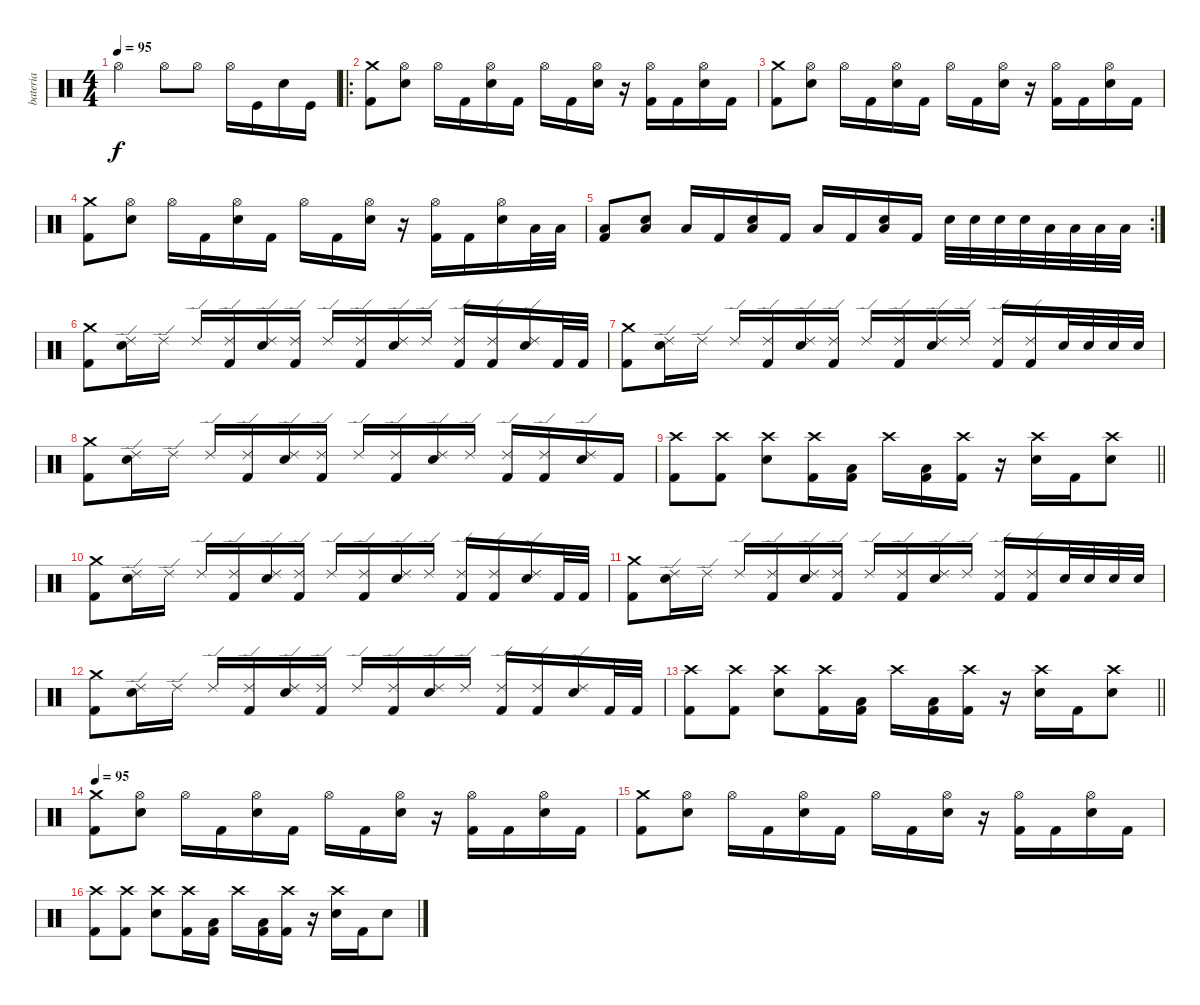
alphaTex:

\track ("bateria" "bateria") {instrument percussion}
\staff {score}
\articulation defaults
\ts (4 4)
\tempo 95
\clef neutral
\ks c "Hi-Hat (open)".2{dy f} "Hi-Hat (open)".8 "Hi-Hat (open)".8 "Hi-Hat (open)".16 "Kick (hit)".16 "Electric Snare (hit)".16 "Kick (hit)".16
|
\ro
("Crash medium (hit)" "Kick (hit) 2").8 ("Hi-Hat (open)" "Electric Snare (hit)").8 "Hi-Hat (open)".16 "Kick (hit) 2".16 ("Hi-Hat (open)" "Electric Snare (hit)").16 "Kick (hit) 2".16 "Hi-Hat (open)".16 "Kick (hit) 2".16 ("Hi-Hat (open)" "Electric Snare (hit)").16 r.16 ("Hi-Hat (open)" "Kick (hit) 2").16 "Kick (hit) 2".16 ("Hi-Hat (open)" "Electric Snare (hit)").16 "Kick (hit) 2".16 |
("Crash medium (hit)" "Kick (hit) 2").8 ("Hi-Hat (open)" "Electric Snare (hit)").8 "Hi-Hat (open)".16 "Kick (hit) 2".16 ("Hi-Hat (open)" "Electric Snare (hit)").16 "Kick (hit) 2".16 "Hi-Hat (open)".16 "Kick (hit) 2".16 ("Hi-Hat (open)" "Electric Snare (hit)").16 r.16 ("Hi-Hat (open)" "Kick (hit) 2").16 "Kick (hit) 2".16 ("Hi-Hat (open)" "Electric Snare (hit)").16 "Kick (hit) 2".16 |
("Crash medium (hit)" "Kick (hit) 2").8 ("Hi-Hat (open)" "Electric Snare (hit)").8 "Hi-Hat (open)".16 "Kick (hit) 2".16 ("Hi-Hat (open)" "Electric Snare (hit)").16 "Kick (hit) 2".16 "Hi-Hat (open)".16 "Kick (hit) 2".16 ("Hi-Hat (open)" "Electric Snare (hit)").16 r.16 ("Hi-Hat (open)" "Kick (hit) 2").16 "Kick (hit) 2".16 ("Hi-Hat (open)" "Electric Snare (hit)").16 "Low Tom (hit)".32 "Low Tom (hit)".32 |
\rc 2
("Low Tom (hit)" "Kick (hit) 2").8 ("Low Tom (hit)" "Electric Snare (hit)").8 "Low Tom (hit)".16 "Kick (hit) 2".16 ("Low Tom (hit)" "Electric Snare (hit)").16 "Kick (hit) 2".16 "Low Tom (hit)".16 "Kick (hit) 2".16 ("Low Tom (hit)" "Electric Snare (hit)").16 "Kick (hit) 2".16 "Electric Snare (hit)".32 "Electric Snare (hit)".32 "Electric Snare (hit)".32 "Electric Snare (hit)".32 "Low Tom (hit)".32 "Low Tom (hit)".32 "Low Tom (hit)".32 "Low Tom (hit)".32 |
("Crash medium (hit)" "Kick (hit) 2").8 ("Ride (edge) 2" "Electric Snare (hit)").16 "Ride (edge) 2".16 "Ride (edge) 2".16 ("Ride (edge) 2" "Kick (hit) 2").16 ("Ride (edge) 2" "Electric Snare (hit)").16 ("Ride (edge) 2" "Kick (hit) 2").16 "Ride (edge) 2".16 ("Ride (edge) 2" "Kick (hit) 2").16 ("Ride (edge) 2" "Electric Snare (hit)").16 "Ride (edge) 2".16 ("Ride (edge) 2" "Kick (hit) 2").16 ("Ride (edge) 2" "Kick (hit) 2").16 ("Ride (edge) 2" "Electric Snare (hit)").16 "Kick (hit) 2".32 "Kick (hit) 2".32 |
("Crash medium (hit)" "Kick (hit) 2").8 ("Ride (edge) 2" "Electric Snare (hit)").16 "Ride (edge) 2".16 "Ride (edge) 2".16 ("Ride (edge) 2" "Kick (hit) 2").16 ("Ride (edge) 2" "Electric Snare (hit)").16 ("Ride (edge) 2" "Kick (hit) 2").16 "Ride (edge) 2".16 ("Ride (edge) 2" "Kick (hit) 2").16 ("Ride (edge) 2" "Electric Snare (hit)").16 "Ride (edge) 2".16 ("Ride (edge) 2" "Kick (hit) 2").16 ("Ride (edge) 2" "Kick (hit) 2").16 "Electric Snare (hit)".32 "Electric Snare (hit)".32 "Electric Snare (hit)".32 "Electric Snare (hit)".32 |
("Crash medium (hit)" "Kick (hit) 2").8 ("Ride (edge) 2" "Electric Snare (hit)").16 "Ride (edge) 2".16 "Ride (edge) 2".16 ("Ride (edge) 2" "Kick (hit) 2").16 ("Ride (edge) 2" "Electric Snare (hit)").16 ("Ride (edge) 2" "Kick (hit) 2").16 "Ride (edge) 2".16 ("Ride (edge) 2" "Kick (hit) 2").16 ("Ride (edge) 2" "Electric Snare (hit)").16 "Ride (edge) 2".16 ("Ride (edge) 2" "Kick (hit) 2").16 ("Ride (edge) 2" "Kick (hit) 2").16 ("Ride (edge) 2" "Electric Snare (hit)").16 "Kick (hit) 2".16 |
\barLineRight lightlight
("Crash high (hit)" "Kick (hit) 2").8 ("Crash high (hit)" "Kick (hit) 2").8 ("Crash high (hit)" "Electric Snare (hit)").8 ("Crash high (hit)" "Kick (hit) 2").16 ("Low Tom (hit)" "Kick (hit) 2").16 "Crash high (hit)".16 ("Low Tom (hit)" "Kick (hit) 2").16 ("Crash high (hit)" "Kick (hit) 2").16 r.16 ("Crash high (hit)" "Electric Snare (hit)").16 "Kick (hit) 2".16 ("Crash high (hit)" "Electric Snare (hit)").8 |
("Crash medium (hit)" "Kick (hit) 2").8 ("Ride (edge) 2" "Electric Snare (hit)").16 "Ride (edge) 2".16 "Ride (edge) 2".16 ("Ride (edge) 2" "Kick (hit) 2").16 ("Ride (edge) 2" "Electric Snare (hit)").16 ("Ride (edge) 2" "Kick (hit) 2").16 "Ride (edge) 2".16 ("Ride (edge) 2" "Kick (hit) 2").16 ("Ride (edge) 2" "Electric Snare (hit)").16 "Ride (edge) 2".16 ("Ride (edge) 2" "Kick (hit) 2").16 ("Ride (edge) 2" "Kick (hit) 2").16 ("Ride (edge) 2" "Electric Snare (hit)").16 "Kick (hit) 2".32 "Kick (hit) 2".32 |
("Crash medium (hit)" "Kick (hit) 2").8 ("Ride (edge) 2" "Electric Snare (hit)").16 "Ride (edge) 2".16 "Ride (edge) 2".16 ("Ride (edge) 2" "Kick (hit) 2").16 ("Ride (edge) 2" "Electric Snare (hit)").16 ("Ride (edge) 2" "Kick (hit) 2").16 "Ride (edge) 2".16 ("Ride (edge) 2" "Kick (hit) 2").16 ("Ride (edge) 2" "Electric Snare (hit)").16 "Ride (edge) 2".16 ("Ride (edge) 2" "Kick (hit) 2").16 ("Ride (edge) 2" "Kick (hit) 2").16 "Electric Snare (hit)".32 "Electric Snare (hit)".32 "Electric Snare (hit)".32 "Electric Snare (hit)".32 |
("Crash medium (hit)" "Kick (hit) 2").8 ("Ride (edge) 2" "Electric Snare (hit)").16 "Ride (edge) 2".16 "Ride (edge) 2".16 ("Ride (edge) 2" "Kick (hit) 2").16 ("Ride (edge) 2" "Electric Snare (hit)").16 ("Ride (edge) 2" "Kick (hit) 2").16 "Ride (edge) 2".16 ("Ride (edge) 2" "Kick (hit) 2").16 ("Ride (edge) 2" "Electric Snare (hit)").16 "Ride (edge) 2".16 ("Ride (edge) 2" "Kick (hit) 2").16 ("Ride (edge) 2" "Kick (hit) 2").16 ("Ride (edge) 2" "Electric Snare (hit)").16 "Kick (hit) 2".32 "Kick (hit) 2".32 |
\barLineRight lightlight
("Crash high (hit)" "Kick (hit) 2").8 ("Crash high (hit)" "Kick (hit) 2").8 ("Crash high (hit)" "Electric Snare (hit)").8 ("Crash high (hit)" "Kick (hit) 2").16 ("Low Tom (hit)" "Kick (hit) 2").16 "Crash high (hit)".16 ("Low Tom (hit)" "Kick (hit) 2").16 ("Crash high (hit)" "Kick (hit) 2").16 r.16 ("Crash high (hit)" "Electric Snare (hit)").16 "Kick (hit) 2".16 ("Crash high (hit)" "Electric Snare (hit)").8 |
\tempo 95
("Crash medium (hit)" "Kick (hit) 2").8 ("Hi-Hat (open)" "Electric Snare (hit)").8 "Hi-Hat (open)".16 "Kick (hit) 2".16 ("Hi-Hat (open)" "Electric Snare (hit)").16 "Kick (hit) 2".16 "Hi-Hat (open)".16 "Kick (hit) 2".16 ("Hi-Hat (open)" "Electric Snare (hit)").16 r.16 ("Hi-Hat (open)" "Kick (hit) 2").16 "Kick (hit) 2".16 ("Hi-Hat (open)" "Electric Snare (hit)").16 "Kick (hit) 2".16 |
("Crash medium (hit)" "Kick (hit) 2").8 ("Hi-Hat (open)" "Electric Snare (hit)").8 "Hi-Hat (open)".16 "Kick (hit) 2".16 ("Hi-Hat (open)" "Electric Snare (hit)").16 "Kick (hit) 2".16 "Hi-Hat (open)".16 "Kick (hit) 2".16 ("Hi-Hat (open)" "Electric Snare (hit)").16 r.16 ("Hi-Hat (open)" "Kick (hit) 2").16 "Kick (hit) 2".16 ("Hi-Hat (open)" "Electric Snare (hit)").16 "Kick (hit) 2".16 |
("Crash high (hit)" "Kick (hit) 2").8 ("Crash high (hit)" "Kick (hit) 2").8 ("Crash high (hit)" "Electric Snare (hit)").8 ("Crash high (hit)" "Kick (hit) 2").16 ("Low Tom (hit)" "Kick (hit) 2").16 "Crash high (hit)".16 ("Low Tom (hit)" "Kick (hit) 2").16 ("Crash high (hit)" "Kick (hit) 2").16 r.16 ("Crash high (hit)" "Electric Snare (hit)").16 "Kick (hit) 2".16 "Electric Snare (hit)".8
